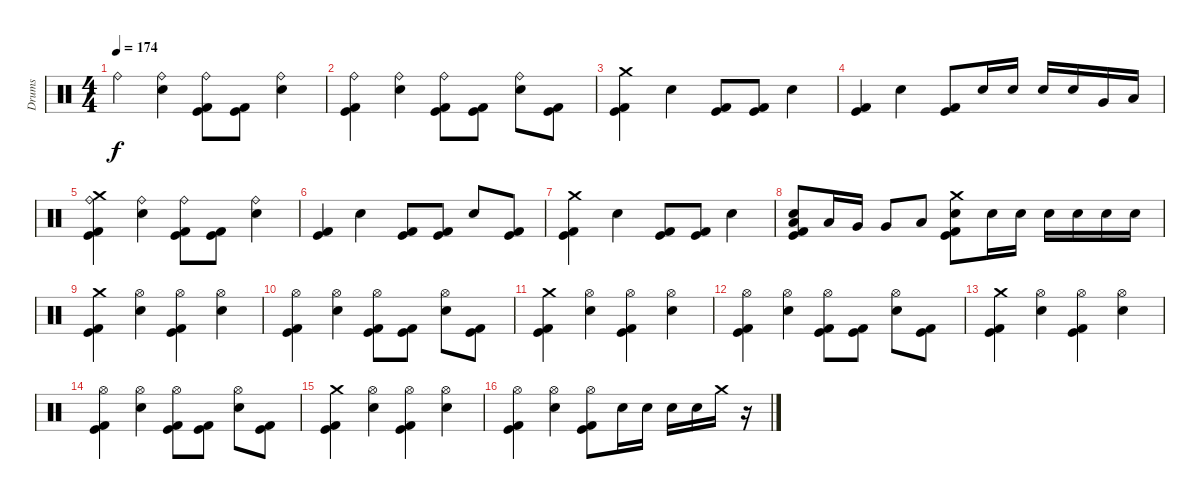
\track ("Drums" "Drums") {instrument percussion}
\staff {score}
\articulation defaults
\ts (4 4)
\tempo 174
\clef neutral
\ks c "Ride (bell)".4{dy f}
("Ride (bell)" "Electric Snare (hit)").4 ("Ride (bell)" "Kick (hit) 2" "Kick (hit)").8 ("Kick (hit) 2" "Kick (hit)").8 ("Ride (bell)" "Electric Snare (hit)").4 |
("Ride (bell)" "Kick (hit) 2" "Kick (hit)").4 ("Ride (bell)" "Electric Snare (hit)").4 ("Ride (bell)" "Kick (hit) 2" "Kick (hit)").8 ("Kick (hit) 2" "Kick (hit)").8 ("Ride (bell)" "Electric Snare (hit)").8 ("Kick (hit) 2" "Kick (hit)").8 |
("Crash medium (hit)" "Kick (hit) 2" "Kick (hit)").4 "Electric Snare (hit)".4 ("Kick (hit) 2" "Kick (hit)").8 ("Kick (hit) 2" "Kick (hit)").8 "Electric Snare (hit)".4 |
("Kick (hit) 2" "Kick (hit)").4 "Electric Snare (hit)".4 ("Kick (hit) 2" "Kick (hit)").8 "Electric Snare (hit)".16 "Electric Snare (hit)".16 "Electric Snare (hit)".16 "Electric Snare (hit)".16 "Very Low Tom (hit)".16 "Low Floor Tom (hit)".16 |
("Crash medium (hit)" "Ride (bell)" "Kick (hit) 2" "Kick (hit)").4 ("Ride (bell)" "Electric Snare (hit)").4 ("Ride (bell)" "Kick (hit) 2" "Kick (hit)").8 ("Kick (hit) 2" "Kick (hit)").8 ("Ride (bell)" "Electric Snare (hit)").4 |
("Kick (hit) 2" "Kick (hit)").4 "Electric Snare (hit)".4 ("Kick (hit) 2" "Kick (hit)").8 ("Kick (hit) 2" "Kick (hit)").8 "Electric Snare (hit)".8 ("Kick (hit) 2" "Kick (hit)").8 |
("Crash medium (hit)" "Kick (hit) 2" "Kick (hit)").4 "Electric Snare (hit)".4 ("Kick (hit) 2" "Kick (hit)").8 ("Kick (hit) 2" "Kick (hit)").8 "Electric Snare (hit)".4 |
("Electric Snare (hit)" "Low Floor Tom (hit)" "Kick (hit) 2" "Kick (hit)").8 "Low Tom (hit)".16 "Very Low Tom (hit)".16 "Very Low Tom (hit)".8 "Low Floor Tom (hit)".8 ("Crash medium (hit)" "Electric Snare (hit)" "Kick (hit) 2" "Kick (hit)").8 "Electric Snare (hit)".16 "Electric Snare (hit)".16 "Electric Snare (hit)".16 "Electric Snare (hit)".16 "Electric Snare (hit)".16 "Electric Snare (hit)".16 |
("Crash medium (hit)" "Kick (hit) 2" "Kick (hit)").4 ("Hi-Hat (open)" "Electric Snare (hit)").4 ("Hi-Hat (open)" "Kick (hit) 2" "Kick (hit)").4 ("Hi-Hat (open)" "Electric Snare (hit)").4 |
("Hi-Hat (open)" "Kick (hit) 2" "Kick (hit)").4 ("Hi-Hat (open)" "Electric Snare (hit)").4 ("Hi-Hat (open)" "Kick (hit) 2" "Kick (hit)").8 ("Kick (hit) 2" "Kick (hit)").8 ("Hi-Hat (open)" "Electric Snare (hit)").8 ("Kick (hit) 2" "Kick (hit)").8 |
("Crash medium (hit)" "Kick (hit) 2" "Kick (hit)").4 ("Hi-Hat (open)" "Electric Snare (hit)").4 ("Hi-Hat (open)" "Kick (hit) 2" "Kick (hit)").4 ("Hi-Hat (open)" "Electric Snare (hit)").4 |
("Hi-Hat (open)" "Kick (hit) 2" "Kick (hit)").4 ("Hi-Hat (open)" "Electric Snare (hit)").4 ("Hi-Hat (open)" "Kick (hit) 2" "Kick (hit)").8 ("Kick (hit) 2" "Kick (hit)").8 ("Hi-Hat (open)" "Electric Snare (hit)").8 ("Kick (hit) 2" "Kick (hit)").8 |
("Crash medium (hit)" "Kick (hit) 2" "Kick (hit)").4 ("Hi-Hat (open)" "Electric Snare (hit)").4 ("Hi-Hat (open)" "Kick (hit) 2" "Kick (hit)").4 ("Hi-Hat (open)" "Electric Snare (hit)").4 |
("Hi-Hat (open)" "Kick (hit) 2" "Kick (hit)").4 ("Hi-Hat (open)" "Electric Snare (hit)").4 ("Hi-Hat (open)" "Kick (hit) 2" "Kick (hit)").8 ("Kick (hit) 2" "Kick (hit)").8 ("Hi-Hat (open)" "Electric Snare (hit)").8 ("Kick (hit) 2" "Kick (hit)").8 |
("Crash medium (hit)" "Kick (hit) 2" "Kick (hit)").4 ("Hi-Hat (open)" "Electric Snare (hit)").4 ("Hi-Hat (open)" "Kick (hit) 2" "Kick (hit)").4 ("Hi-Hat (open)" "Electric Snare (hit)").4 |
("Hi-Hat (open)" "Kick (hit) 2" "Kick (hit)").4 ("Hi-Hat (open)" "Electric Snare (hit)").4 ("Hi-Hat (open)" "Kick (hit) 2" "Kick (hit)").8 "Electric Snare (hit)".16 "Electric Snare (hit)".16 "Electric Snare (hit)".16 "Electric Snare (hit)".16 "Crash medium (hit)".16 r.16
